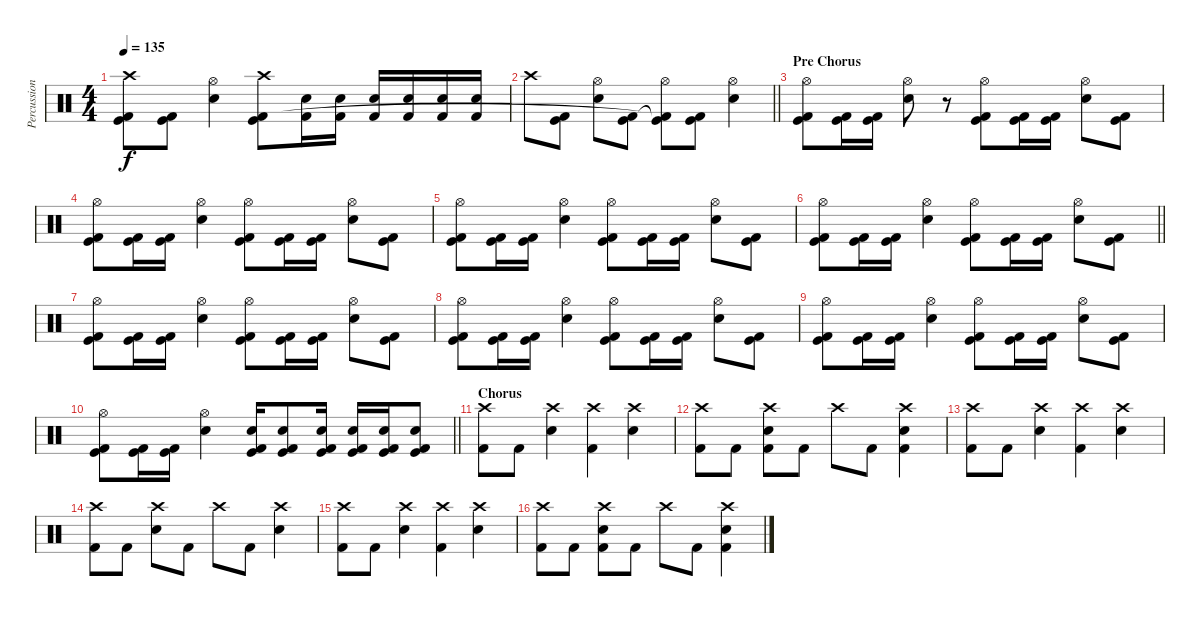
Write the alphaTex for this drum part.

\track ("Percussion" "Percussion") {instrument percussion}
\staff {score}
\articulation defaults
\ts (4 4)
\tempo 135
\clef neutral
\ks c
("Crash high (hit)" "Kick (hit)" "Kick (hit) 2").8{dy f} ("Kick (hit)" "Kick (hit) 2").8 ("Hi-Hat (open)" "Electric Snare (hit)").4 ("Crash high (hit)" "Kick (hit)" "Kick (hit) 2").8 ("Electric Snare (hit)" "Kick (hit) 2").16 ("Electric Snare (hit)" "Kick (hit) 2").16 ("Electric Snare (hit)" "Kick (hit) 2").16 ("Electric Snare (hit)" "Kick (hit) 2").16 ("Electric Snare (hit)" "Kick (hit) 2").16 ("Electric Snare (hit)" "Kick (hit) 2").16 |
\barLineRight lightlight "Crash high (hit)".8
("Kick (hit)" "Kick (hit) 2").8 ("Hi-Hat (open)" "Electric Snare (hit)").8 ("Kick (hit)" "Kick (hit) 2").8 ("Hi-Hat (open)" "Kick (hit)"{t} "Kick (hit) 2"{t}).8 ("Kick (hit)" "Kick (hit) 2").8 ("Hi-Hat (open)" "Electric Snare (hit)").4 |
\section ("" "Pre Chorus")
("Hi-Hat (open)" "Kick (hit)" "Kick (hit) 2").8 ("Kick (hit)" "Kick (hit) 2").16 ("Kick (hit)" "Kick (hit) 2").16 ("Hi-Hat (open)" "Electric Snare (hit)").8 r.8 ("Hi-Hat (open)" "Kick (hit)" "Kick (hit) 2").8 ("Kick (hit)" "Kick (hit) 2").16 ("Kick (hit)" "Kick (hit) 2").16 ("Hi-Hat (open)" "Electric Snare (hit)").8 ("Kick (hit)" "Kick (hit) 2").8 |
("Hi-Hat (open)" "Kick (hit)" "Kick (hit) 2").8 ("Kick (hit)" "Kick (hit) 2").16 ("Kick (hit)" "Kick (hit) 2").16 ("Hi-Hat (open)" "Electric Snare (hit)").4 ("Hi-Hat (open)" "Kick (hit)" "Kick (hit) 2").8 ("Kick (hit)" "Kick (hit) 2").16 ("Kick (hit)" "Kick (hit) 2").16 ("Hi-Hat (open)" "Electric Snare (hit)").8 ("Kick (hit)" "Kick (hit) 2").8 |
("Hi-Hat (open)" "Kick (hit)" "Kick (hit) 2").8 ("Kick (hit)" "Kick (hit) 2").16 ("Kick (hit)" "Kick (hit) 2").16 ("Hi-Hat (open)" "Electric Snare (hit)").4 ("Hi-Hat (open)" "Kick (hit)" "Kick (hit) 2").8 ("Kick (hit)" "Kick (hit) 2").16 ("Kick (hit)" "Kick (hit) 2").16 ("Hi-Hat (open)" "Electric Snare (hit)").8 ("Kick (hit)" "Kick (hit) 2").8 |
\barLineRight lightlight
("Hi-Hat (open)" "Kick (hit)" "Kick (hit) 2").8 ("Kick (hit)" "Kick (hit) 2").16 ("Kick (hit)" "Kick (hit) 2").16 ("Hi-Hat (open)" "Electric Snare (hit)").4 ("Hi-Hat (open)" "Kick (hit)" "Kick (hit) 2").8 ("Kick (hit)" "Kick (hit) 2").16 ("Kick (hit)" "Kick (hit) 2").16 ("Hi-Hat (open)" "Electric Snare (hit)").8 ("Kick (hit)" "Kick (hit) 2").8 |
\section ("" "")
("Hi-Hat (open)" "Kick (hit)" "Kick (hit) 2").8 ("Kick (hit)" "Kick (hit) 2").16 ("Kick (hit)" "Kick (hit) 2").16 ("Hi-Hat (open)" "Electric Snare (hit)").4 ("Hi-Hat (open)" "Kick (hit)" "Kick (hit) 2").8 ("Kick (hit)" "Kick (hit) 2").16 ("Kick (hit)" "Kick (hit) 2").16 ("Hi-Hat (open)" "Electric Snare (hit)").8 ("Kick (hit)" "Kick (hit) 2").8 |
("Hi-Hat (open)" "Kick (hit)" "Kick (hit) 2").8 ("Kick (hit)" "Kick (hit) 2").16 ("Kick (hit)" "Kick (hit) 2").16 ("Hi-Hat (open)" "Electric Snare (hit)").4 ("Hi-Hat (open)" "Kick (hit)" "Kick (hit) 2").8 ("Kick (hit)" "Kick (hit) 2").16 ("Kick (hit)" "Kick (hit) 2").16 ("Hi-Hat (open)" "Electric Snare (hit)").8 ("Kick (hit)" "Kick (hit) 2").8 |
("Hi-Hat (open)" "Kick (hit)" "Kick (hit) 2").8 ("Kick (hit)" "Kick (hit) 2").16 ("Kick (hit)" "Kick (hit) 2").16 ("Hi-Hat (open)" "Electric Snare (hit)").4 ("Hi-Hat (open)" "Kick (hit)" "Kick (hit) 2").8 ("Kick (hit)" "Kick (hit) 2").16 ("Kick (hit)" "Kick (hit) 2").16 ("Hi-Hat (open)" "Electric Snare (hit)").8 ("Kick (hit)" "Kick (hit) 2").8 |
\barLineRight lightlight
("Hi-Hat (open)" "Kick (hit)" "Kick (hit) 2").8 ("Kick (hit)" "Kick (hit) 2").16 ("Kick (hit)" "Kick (hit) 2").16 ("Hi-Hat (open)" "Electric Snare (hit)").4 ("Electric Snare (hit)" "Kick (hit)" "Kick (hit) 2").16 ("Electric Snare (hit)" "Kick (hit)" "Kick (hit) 2").8 ("Electric Snare (hit)" "Kick (hit)" "Kick (hit) 2").16 ("Electric Snare (hit)" "Kick (hit)" "Kick (hit) 2").16 ("Electric Snare (hit)" "Kick (hit)" "Kick (hit) 2").16 ("Electric Snare (hit)" "Kick (hit)" "Kick (hit) 2").8 |
\section ("" "Chorus")
("Crash high (hit)" "Kick (hit) 2").8 "Kick (hit) 2".8 ("Crash high (hit)" "Electric Snare (hit)").4 ("Crash high (hit)" "Kick (hit) 2").4 ("Crash high (hit)" "Electric Snare (hit)").4 |
("Crash high (hit)" "Kick (hit) 2").8 "Kick (hit) 2".8 ("Crash high (hit)" "Electric Snare (hit)" "Kick (hit) 2").8 "Kick (hit) 2".8 "Crash high (hit)".8 "Kick (hit) 2".8 ("Crash high (hit)" "Electric Snare (hit)" "Kick (hit) 2").4 |
("Crash high (hit)" "Kick (hit) 2").8 "Kick (hit) 2".8 ("Crash high (hit)" "Electric Snare (hit)").4 ("Crash high (hit)" "Kick (hit) 2").4 ("Crash high (hit)" "Electric Snare (hit)").4 |
("Crash high (hit)" "Kick (hit) 2").8 "Kick (hit) 2".8 ("Crash high (hit)" "Electric Snare (hit)").8 "Kick (hit) 2".8 "Crash high (hit)".8 "Kick (hit) 2".8 ("Crash high (hit)" "Electric Snare (hit)").4 |
("Crash high (hit)" "Kick (hit) 2").8 "Kick (hit) 2".8 ("Crash high (hit)" "Electric Snare (hit)").4 ("Crash high (hit)" "Kick (hit) 2").4 ("Crash high (hit)" "Electric Snare (hit)").4 |
("Crash high (hit)" "Kick (hit) 2").8 "Kick (hit) 2".8 ("Crash high (hit)" "Electric Snare (hit)" "Kick (hit) 2").8 "Kick (hit) 2".8 "Crash high (hit)".8 "Kick (hit) 2".8 ("Crash high (hit)" "Electric Snare (hit)" "Kick (hit) 2").4
